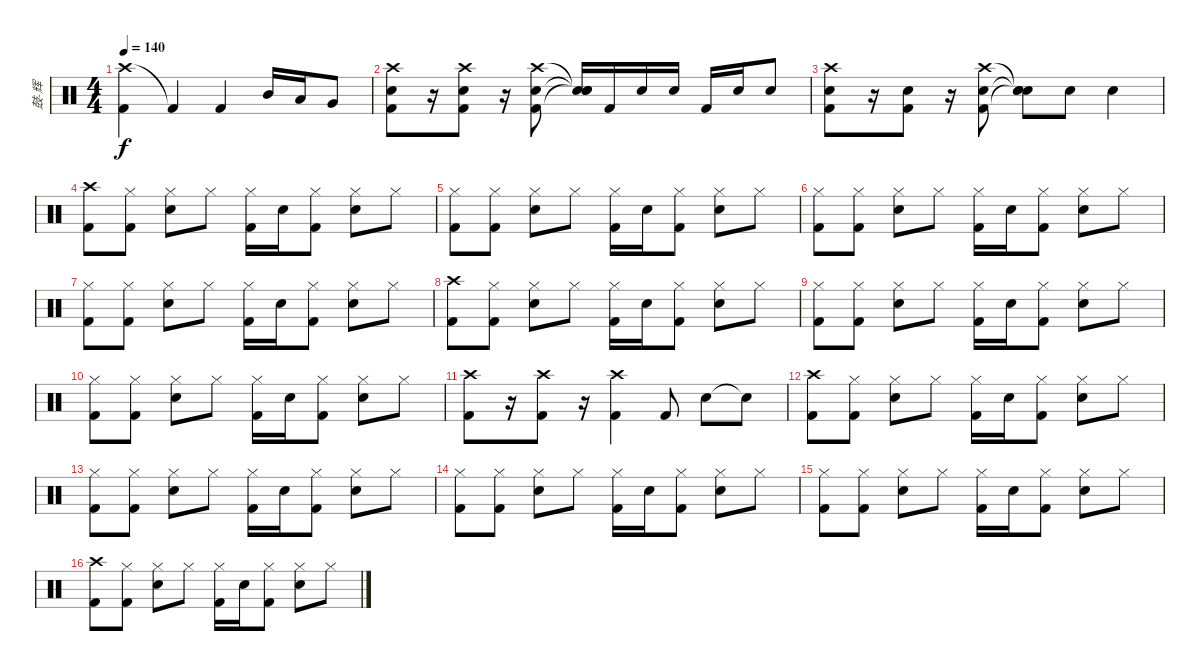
\track ("鼓-辉" "鼓-辉") {instrument percussion}
\staff {score}
\articulation defaults
\ts (4 4)
\tempo 140
\clef neutral
\ks c
("Crash high (hit)" "Kick (hit) 2").4{dy f} "Kick (hit) 2"{t}.4 "Kick (hit) 2".4 "Mid Tom (hit)".16 "Low Tom (hit)".16 "Very Low Tom (hit)".8 |
("Crash high (hit)" "Snare (hit) 2" "Kick (hit) 2").8 r.16 ("Crash high (hit)" "Snare (hit) 2" "Kick (hit) 2").8 r.16 ("Crash high (hit)" "Snare (hit) 2" "Kick (hit) 2").8 ("Snare (hit)"{t} "Snare (hit) 2"{t} "Snare (hit)"{t}).16 "Kick (hit) 2".16 "Snare (hit) 2".16 "Snare (hit) 2".16 "Kick (hit) 2".16 "Snare (hit) 2".16 "Snare (hit) 2".8 |
("Crash high (hit)" "Snare (hit) 2" "Kick (hit) 2").8 r.16 ("Snare (hit) 2" "Kick (hit) 2").8 r.16 ("Crash high (hit)" "Snare (hit) 2" "Kick (hit) 2").8 ("Snare (hit)"{t} "Snare (hit) 2"{t} "Snare (hit)"{t}).8 "Snare (hit) 2".8 "Snare (hit) 2".4 |
("Crash high (hit)" "Kick (hit) 2").8 ("Hi-Hat (closed)" "Kick (hit) 2").8 ("Hi-Hat (closed)" "Snare (hit) 2").8 "Hi-Hat (closed)".8 ("Hi-Hat (closed)" "Kick (hit) 2").16 "Snare (hit) 2".16 ("Hi-Hat (closed)" "Kick (hit) 2").8 ("Hi-Hat (closed)" "Snare (hit) 2").8 "Hi-Hat (closed)".8 |
("Hi-Hat (closed)" "Kick (hit) 2").8 ("Hi-Hat (closed)" "Kick (hit) 2").8 ("Hi-Hat (closed)" "Snare (hit) 2").8 "Hi-Hat (closed)".8 ("Hi-Hat (closed)" "Kick (hit) 2").16 "Snare (hit) 2".16 ("Hi-Hat (closed)" "Kick (hit) 2").8 ("Hi-Hat (closed)" "Snare (hit) 2").8 "Hi-Hat (closed)".8 |
("Hi-Hat (closed)" "Kick (hit) 2").8 ("Hi-Hat (closed)" "Kick (hit) 2").8 ("Hi-Hat (closed)" "Snare (hit) 2").8 "Hi-Hat (closed)".8 ("Hi-Hat (closed)" "Kick (hit) 2").16 "Snare (hit) 2".16 ("Hi-Hat (closed)" "Kick (hit) 2").8 ("Hi-Hat (closed)" "Snare (hit) 2").8 "Hi-Hat (closed)".8 |
("Hi-Hat (closed)" "Kick (hit) 2").8 ("Hi-Hat (closed)" "Kick (hit) 2").8 ("Hi-Hat (closed)" "Snare (hit) 2").8 "Hi-Hat (closed)".8 ("Hi-Hat (closed)" "Kick (hit) 2").16 "Snare (hit) 2".16 ("Hi-Hat (closed)" "Kick (hit) 2").8 ("Hi-Hat (closed)" "Snare (hit) 2").8 "Hi-Hat (closed)".8 |
("Crash high (hit)" "Kick (hit) 2").8 ("Hi-Hat (closed)" "Kick (hit) 2").8 ("Hi-Hat (closed)" "Snare (hit) 2").8 "Hi-Hat (closed)".8 ("Hi-Hat (closed)" "Kick (hit) 2").16 "Snare (hit) 2".16 ("Hi-Hat (closed)" "Kick (hit) 2").8 ("Hi-Hat (closed)" "Snare (hit) 2").8 "Hi-Hat (closed)".8 |
("Hi-Hat (closed)" "Kick (hit) 2").8 ("Hi-Hat (closed)" "Kick (hit) 2").8 ("Hi-Hat (closed)" "Snare (hit) 2").8 "Hi-Hat (closed)".8 ("Hi-Hat (closed)" "Kick (hit) 2").16 "Snare (hit) 2".16 ("Hi-Hat (closed)" "Kick (hit) 2").8 ("Hi-Hat (closed)" "Snare (hit) 2").8 "Hi-Hat (closed)".8 |
("Hi-Hat (closed)" "Kick (hit) 2").8 ("Hi-Hat (closed)" "Kick (hit) 2").8 ("Hi-Hat (closed)" "Snare (hit) 2").8 "Hi-Hat (closed)".8 ("Hi-Hat (closed)" "Kick (hit) 2").16 "Snare (hit) 2".16 ("Hi-Hat (closed)" "Kick (hit) 2").8 ("Hi-Hat (closed)" "Snare (hit) 2").8 "Hi-Hat (closed)".8 |
("Crash high (hit)" "Kick (hit) 2").8 r.16 ("Crash high (hit)" "Kick (hit) 2").8 r.16 ("Crash high (hit)" "Kick (hit) 2").4 "Kick (hit) 2".8 "Snare (hit) 2".8 "Snare (hit) 2"{t}.8 |
("Crash high (hit)" "Kick (hit) 2").8 ("Hi-Hat (closed)" "Kick (hit) 2").8 ("Hi-Hat (closed)" "Snare (hit) 2").8 "Hi-Hat (closed)".8 ("Hi-Hat (closed)" "Kick (hit) 2").16 "Snare (hit) 2".16 ("Hi-Hat (closed)" "Kick (hit) 2").8 ("Hi-Hat (closed)" "Snare (hit) 2").8 "Hi-Hat (closed)".8 |
("Hi-Hat (closed)" "Kick (hit) 2").8 ("Hi-Hat (closed)" "Kick (hit) 2").8 ("Hi-Hat (closed)" "Snare (hit) 2").8 "Hi-Hat (closed)".8 ("Hi-Hat (closed)" "Kick (hit) 2").16 "Snare (hit) 2".16 ("Hi-Hat (closed)" "Kick (hit) 2").8 ("Hi-Hat (closed)" "Snare (hit) 2").8 "Hi-Hat (closed)".8 |
("Hi-Hat (closed)" "Kick (hit) 2").8 ("Hi-Hat (closed)" "Kick (hit) 2").8 ("Hi-Hat (closed)" "Snare (hit) 2").8 "Hi-Hat (closed)".8 ("Hi-Hat (closed)" "Kick (hit) 2").16 "Snare (hit) 2".16 ("Hi-Hat (closed)" "Kick (hit) 2").8 ("Hi-Hat (closed)" "Snare (hit) 2").8 "Hi-Hat (closed)".8 |
("Hi-Hat (closed)" "Kick (hit) 2").8 ("Hi-Hat (closed)" "Kick (hit) 2").8 ("Hi-Hat (closed)" "Snare (hit) 2").8 "Hi-Hat (closed)".8 ("Hi-Hat (closed)" "Kick (hit) 2").16 "Snare (hit) 2".16 ("Hi-Hat (closed)" "Kick (hit) 2").8 ("Hi-Hat (closed)" "Snare (hit) 2").8 "Hi-Hat (closed)".8 |
("Crash high (hit)" "Kick (hit) 2").8 ("Hi-Hat (closed)" "Kick (hit) 2").8 ("Hi-Hat (closed)" "Snare (hit) 2").8 "Hi-Hat (closed)".8 ("Hi-Hat (closed)" "Kick (hit) 2").16 "Snare (hit) 2".16 ("Hi-Hat (closed)" "Kick (hit) 2").8 ("Hi-Hat (closed)" "Snare (hit) 2").8 "Hi-Hat (closed)".8
